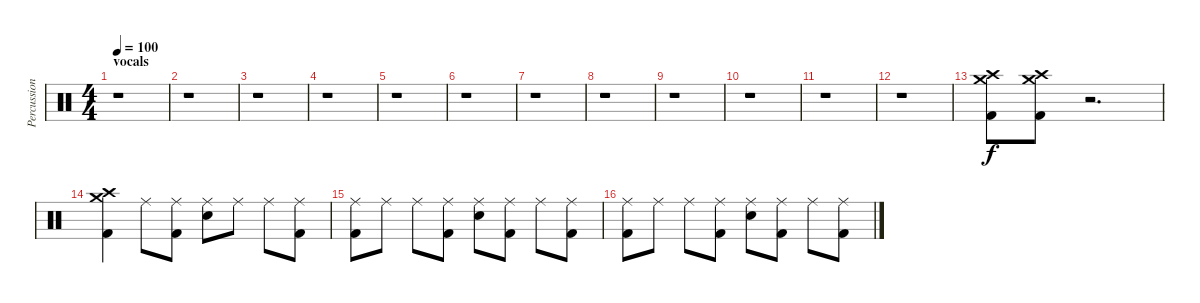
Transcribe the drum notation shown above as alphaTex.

\track ("Percussion" "Percussion") {instrument percussion}
\staff {score}
\articulation defaults
\ts (4 4)
\section ("" "vocals")
\tempo 100
\clef neutral
\ks c
r.1{dy f} |
r.1 |
r.1 |
r.1 |
r.1 |
r.1 |
r.1 |
r.1 |
r.1 |
r.1 |
r.1 |
r.1 |
("Kick (hit) 2" "Crash high (hit)" "Crash medium (hit)").8 ("Kick (hit) 2" "Crash high (hit)" "Crash medium (hit)").8 r.2{d} |
("Kick (hit) 2" "Crash medium (hit)" "Crash high (hit)").4 "Ride (middle)".8 ("Kick (hit) 2" "Ride (middle)").8 ("Snare (hit) 2" "Ride (middle)").8 "Ride (middle)".8 "Ride (middle)".8 ("Kick (hit) 2" "Ride (middle)").8 |
("Kick (hit) 2" "Ride (middle)").8 "Ride (middle)".8 "Ride (middle)".8 ("Kick (hit) 2" "Ride (middle)").8 ("Snare (hit) 2" "Ride (middle)").8 ("Kick (hit) 2" "Ride (middle)").8 "Ride (middle)".8 ("Kick (hit) 2" "Ride (middle)").8 |
("Kick (hit) 2" "Ride (middle)").8 "Ride (middle)".8 "Ride (middle)".8 ("Kick (hit) 2" "Ride (middle)").8 ("Snare (hit) 2" "Ride (middle)").8 ("Kick (hit) 2" "Ride (middle)").8 "Ride (middle)".8 ("Kick (hit) 2" "Ride (middle)").8
